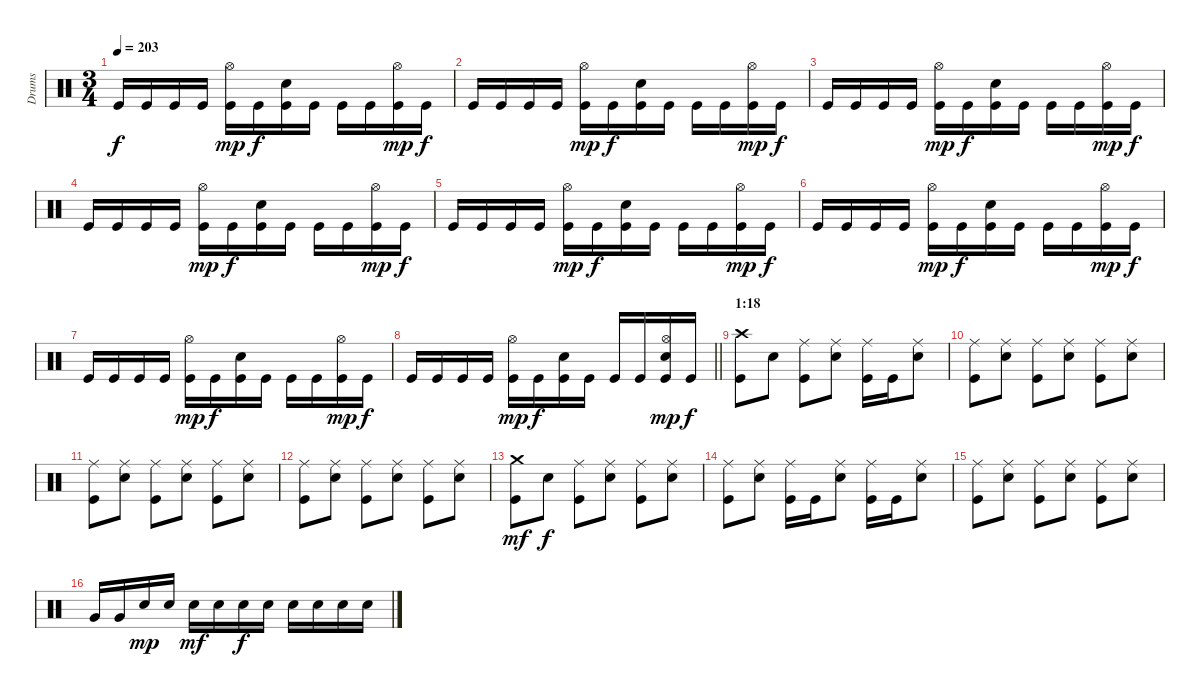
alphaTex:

\track ("Drums" "Drums") {instrument percussion}
\staff {score}
\articulation defaults
\ts (3 4)
\tempo 203
\clef neutral
\ks c "Kick (hit)".16{dy f} "Kick (hit)".16 "Kick (hit)".16 "Kick (hit)".16
("Hi-Hat (open)" "Kick (hit)").16{dy mp} "Kick (hit)".16{dy f} ("Electric Snare (hit)" "Kick (hit)").16 "Kick (hit)".16 "Kick (hit)".16 "Kick (hit)".16 ("Hi-Hat (open)" "Kick (hit)").16{dy mp} "Kick (hit)".16{dy f} |
"Kick (hit)".16 "Kick (hit)".16 "Kick (hit)".16 "Kick (hit)".16 ("Hi-Hat (open)" "Kick (hit)").16{dy mp} "Kick (hit)".16{dy f} ("Electric Snare (hit)" "Kick (hit)").16 "Kick (hit)".16 "Kick (hit)".16 "Kick (hit)".16 ("Hi-Hat (open)" "Kick (hit)").16{dy mp} "Kick (hit)".16{dy f} |
"Kick (hit)".16 "Kick (hit)".16 "Kick (hit)".16 "Kick (hit)".16 ("Hi-Hat (open)" "Kick (hit)").16{dy mp} "Kick (hit)".16{dy f} ("Electric Snare (hit)" "Kick (hit)").16 "Kick (hit)".16 "Kick (hit)".16 "Kick (hit)".16 ("Hi-Hat (open)" "Kick (hit)").16{dy mp} "Kick (hit)".16{dy f} |
"Kick (hit)".16 "Kick (hit)".16 "Kick (hit)".16 "Kick (hit)".16 ("Hi-Hat (open)" "Kick (hit)").16{dy mp} "Kick (hit)".16{dy f} ("Electric Snare (hit)" "Kick (hit)").16 "Kick (hit)".16 "Kick (hit)".16 "Kick (hit)".16 ("Hi-Hat (open)" "Kick (hit)").16{dy mp} "Kick (hit)".16{dy f} |
"Kick (hit)".16 "Kick (hit)".16 "Kick (hit)".16 "Kick (hit)".16 ("Hi-Hat (open)" "Kick (hit)").16{dy mp} "Kick (hit)".16{dy f} ("Electric Snare (hit)" "Kick (hit)").16 "Kick (hit)".16 "Kick (hit)".16 "Kick (hit)".16 ("Hi-Hat (open)" "Kick (hit)").16{dy mp} "Kick (hit)".16{dy f} |
"Kick (hit)".16 "Kick (hit)".16 "Kick (hit)".16 "Kick (hit)".16 ("Hi-Hat (open)" "Kick (hit)").16{dy mp} "Kick (hit)".16{dy f} ("Electric Snare (hit)" "Kick (hit)").16 "Kick (hit)".16 "Kick (hit)".16 "Kick (hit)".16 ("Hi-Hat (open)" "Kick (hit)").16{dy mp} "Kick (hit)".16{dy f} |
"Kick (hit)".16 "Kick (hit)".16 "Kick (hit)".16 "Kick (hit)".16 ("Hi-Hat (open)" "Kick (hit)").16{dy mp} "Kick (hit)".16{dy f} ("Electric Snare (hit)" "Kick (hit)").16 "Kick (hit)".16 "Kick (hit)".16 "Kick (hit)".16 ("Hi-Hat (open)" "Kick (hit)").16{dy mp} "Kick (hit)".16{dy f} |
\barLineRight lightlight "Kick (hit)".16 "Kick (hit)".16 "Kick (hit)".16 "Kick (hit)".16
("Hi-Hat (open)" "Kick (hit)").16{dy mp} "Kick (hit)".16{dy f} ("Electric Snare (hit)" "Kick (hit)").16 "Kick (hit)".16 "Kick (hit)".16 "Kick (hit)".16 ("Hi-Hat (open)" "Electric Snare (hit)" "Kick (hit)").16{dy mp} "Kick (hit)".16{dy f} |
\section ("" "1:18")
("Crash high (hit)" "Kick (hit)").8 "Electric Snare (hit)".8 ("Ride (middle)" "Kick (hit)").8 ("Ride (middle)" "Electric Snare (hit)").8 ("Ride (middle)" "Kick (hit)").16 "Kick (hit)".16 ("Ride (middle)" "Electric Snare (hit)").8 |
("Ride (middle)" "Kick (hit)").8 ("Ride (middle)" "Electric Snare (hit)").8 ("Ride (middle)" "Kick (hit)").8 ("Ride (middle)" "Electric Snare (hit)").8 ("Ride (middle)" "Kick (hit)").8 ("Ride (middle)" "Electric Snare (hit)").8 |
("Ride (middle)" "Kick (hit)").8 ("Ride (middle)" "Electric Snare (hit)").8 ("Ride (middle)" "Kick (hit)").8 ("Ride (middle)" "Electric Snare (hit)").8 ("Ride (middle)" "Kick (hit)").8 ("Ride (middle)" "Electric Snare (hit)").8 |
("Ride (middle)" "Kick (hit)").8 ("Ride (middle)" "Electric Snare (hit)").8 ("Ride (middle)" "Kick (hit)").8 ("Ride (middle)" "Electric Snare (hit)").8 ("Ride (middle)" "Kick (hit)").8 ("Ride (middle)" "Electric Snare (hit)").8 |
("Crash medium (hit)" "Kick (hit)").8{dy mf} "Electric Snare (hit)".8{dy f} ("Ride (middle)" "Kick (hit)").8 ("Ride (middle)" "Electric Snare (hit)").8 ("Ride (middle)" "Kick (hit)").8 ("Ride (middle)" "Electric Snare (hit)").8 |
("Ride (middle)" "Kick (hit)").8 ("Ride (middle)" "Electric Snare (hit)").8 ("Ride (middle)" "Kick (hit)").16 "Kick (hit)".16 ("Ride (middle)" "Electric Snare (hit)").8 ("Ride (middle)" "Kick (hit)").16 "Kick (hit)".16 ("Ride (middle)" "Electric Snare (hit)").8 |
("Ride (middle)" "Kick (hit)").8 ("Ride (middle)" "Electric Snare (hit)").8 ("Ride (middle)" "Kick (hit)").8 ("Ride (middle)" "Electric Snare (hit)").8 ("Ride (middle)" "Kick (hit)").8 ("Ride (middle)" "Electric Snare (hit)").8 |
"Very Low Tom (hit)".16 "Very Low Tom (hit)".16 "Electric Snare (hit)".16{dy mp} "Electric Snare (hit)".16 "Electric Snare (hit)".16{dy mf} "Electric Snare (hit)".16 "Electric Snare (hit)".16{dy f} "Electric Snare (hit)".16 "Electric Snare (hit)".16 "Electric Snare (hit)".16 "Electric Snare (hit)".16 "Electric Snare (hit)".16
